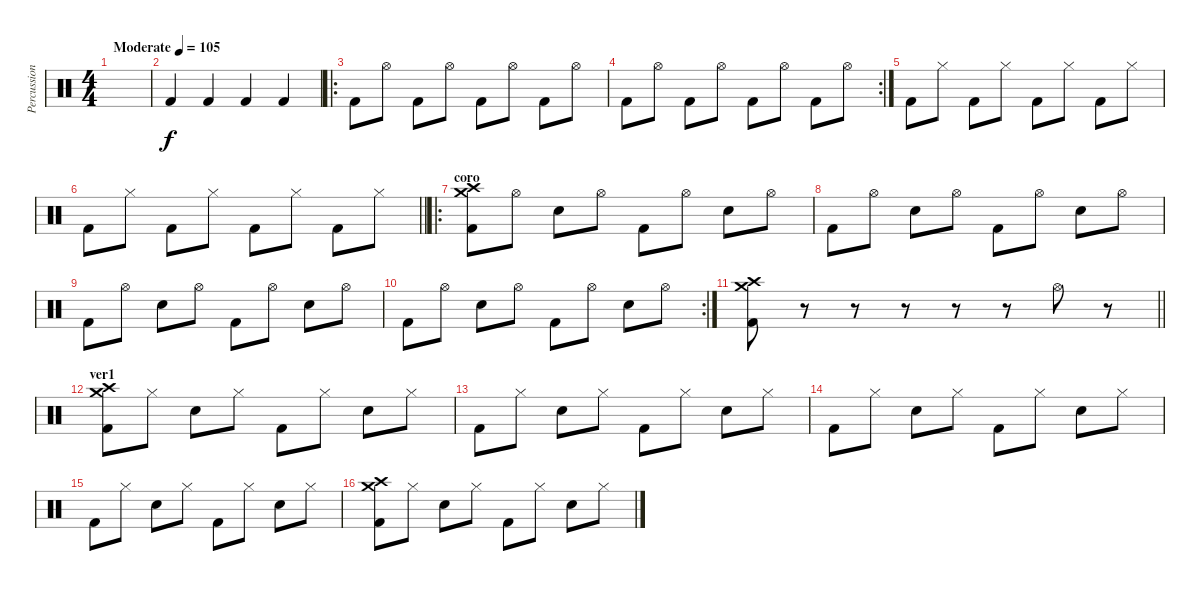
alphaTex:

\track ("Percussion" "Percussion") {instrument percussion}
\staff {score}
\articulation defaults
\ts (4 4)
\tempo (105 "Moderate")
\clef neutral
\ks c
|
"Kick (hit) 2".4 "Kick (hit) 2".4 "Kick (hit) 2".4 "Kick (hit) 2".4 |
\ro "Kick (hit) 2".8 "Hi-Hat (open)".8 "Kick (hit) 2".8 "Hi-Hat (open)".8 "Kick (hit) 2".8 "Hi-Hat (open)".8 "Kick (hit) 2".8 "Hi-Hat (open)".8
|
\rc 2 "Kick (hit) 2".8 "Hi-Hat (open)".8 "Kick (hit) 2".8 "Hi-Hat (open)".8 "Kick (hit) 2".8 "Hi-Hat (open)".8 "Kick (hit) 2".8 "Hi-Hat (open)".8
|
"Kick (hit) 2".8 "Hi-Hat (closed)".8 "Kick (hit) 2".8 "Hi-Hat (closed)".8 "Kick (hit) 2".8 "Hi-Hat (closed)".8 "Kick (hit) 2".8 "Hi-Hat (closed)".8 |
\barLineRight lightlight "Kick (hit) 2".8 "Hi-Hat (closed)".8 "Kick (hit) 2".8 "Hi-Hat (closed)".8 "Kick (hit) 2".8 "Hi-Hat (closed)".8 "Kick (hit) 2".8 "Hi-Hat (closed)".8
|
\ro
\section ("" "coro")
("Crash high (hit)" "Crash medium (hit)" "Kick (hit) 2").8 "Hi-Hat (open)".8 "Snare (hit) 2".8 "Hi-Hat (open)".8 "Kick (hit) 2".8 "Hi-Hat (open)".8 "Snare (hit) 2".8 "Hi-Hat (open)".8 |
"Kick (hit) 2".8 "Hi-Hat (open)".8 "Snare (hit) 2".8 "Hi-Hat (open)".8 "Kick (hit) 2".8 "Hi-Hat (open)".8 "Snare (hit) 2".8 "Hi-Hat (open)".8 |
"Kick (hit) 2".8 "Hi-Hat (open)".8 "Snare (hit) 2".8 "Hi-Hat (open)".8 "Kick (hit) 2".8 "Hi-Hat (open)".8 "Snare (hit) 2".8 "Hi-Hat (open)".8 |
\rc 2 "Kick (hit) 2".8 "Hi-Hat (open)".8 "Snare (hit) 2".8 "Hi-Hat (open)".8 "Kick (hit) 2".8 "Hi-Hat (open)".8 "Snare (hit) 2".8 "Hi-Hat (open)".8
|
\barLineRight lightlight
("Crash medium (hit)" "Crash high (hit)" "Kick (hit) 2").8 r.8 r.8 r.8 r.8 r.8 "Hi-Hat (open)".8 r.8 |
\section ("" "ver1")
("Crash medium (hit)" "Crash high (hit)" "Kick (hit) 2").8 "Hi-Hat (closed)".8 "Snare (hit) 2".8 "Hi-Hat (closed)".8 "Kick (hit) 2".8 "Hi-Hat (closed)".8 "Snare (hit) 2".8 "Hi-Hat (closed)".8 |
"Kick (hit) 2".8 "Hi-Hat (closed)".8 "Snare (hit) 2".8 "Hi-Hat (closed)".8 "Kick (hit) 2".8 "Hi-Hat (closed)".8 "Snare (hit) 2".8 "Hi-Hat (closed)".8 |
"Kick (hit) 2".8 "Hi-Hat (closed)".8 "Snare (hit) 2".8 "Hi-Hat (closed)".8 "Kick (hit) 2".8 "Hi-Hat (closed)".8 "Snare (hit) 2".8 "Hi-Hat (closed)".8 |
"Kick (hit) 2".8 "Hi-Hat (closed)".8 "Snare (hit) 2".8 "Hi-Hat (closed)".8 "Kick (hit) 2".8 "Hi-Hat (closed)".8 "Snare (hit) 2".8 "Hi-Hat (closed)".8 |
("Crash medium (hit)" "Crash high (hit)" "Kick (hit) 2").8 "Hi-Hat (closed)".8 "Snare (hit) 2".8 "Hi-Hat (closed)".8 "Kick (hit) 2".8 "Hi-Hat (closed)".8 "Snare (hit) 2".8 "Hi-Hat (closed)".8
